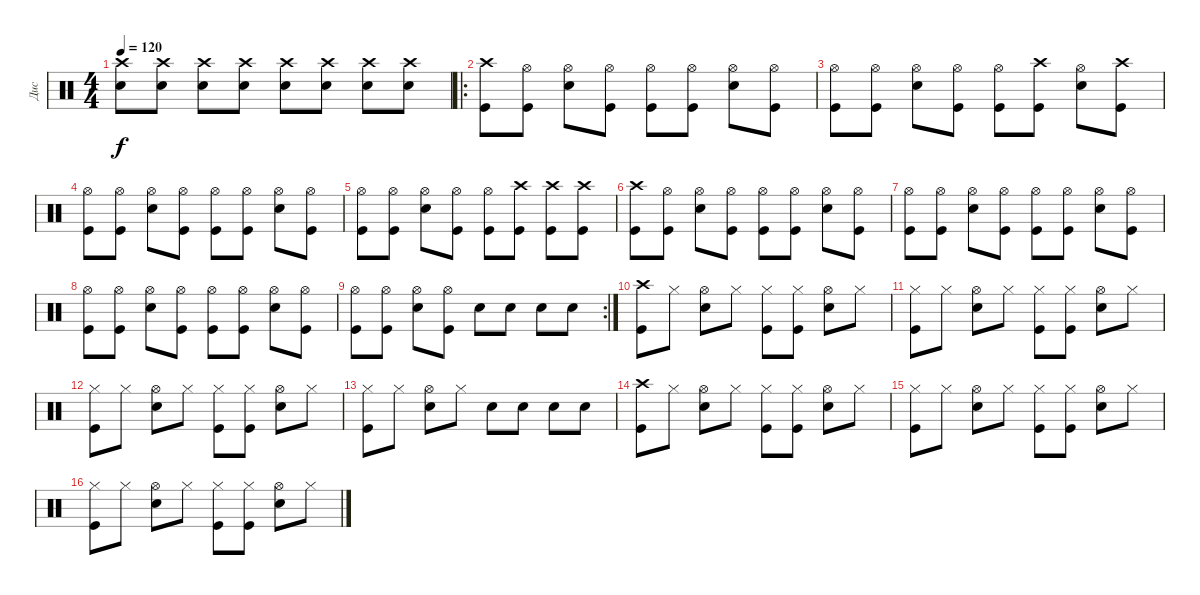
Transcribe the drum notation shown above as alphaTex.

\track ("Дис" "Дис") {instrument percussion}
\staff {score}
\articulation defaults
\ts (4 4)
\tempo 120
\clef neutral
\ks c
("Crash high (hit)" "Electric Snare (hit)").8{dy f} ("Crash high (hit)" "Electric Snare (hit)").8 ("Crash high (hit)" "Electric Snare (hit)").8 ("Crash high (hit)" "Electric Snare (hit)").8 ("Crash high (hit)" "Electric Snare (hit)").8 ("Crash high (hit)" "Electric Snare (hit)").8 ("Crash high (hit)" "Electric Snare (hit)").8 ("Crash high (hit)" "Electric Snare (hit)").8 |
\ro
("Crash high (hit)" "Kick (hit)").8 ("Hi-Hat (open)" "Kick (hit)").8 ("Hi-Hat (open)" "Electric Snare (hit)").8 ("Hi-Hat (open)" "Kick (hit)").8 ("Hi-Hat (open)" "Kick (hit)").8 ("Hi-Hat (open)" "Kick (hit)").8 ("Hi-Hat (open)" "Electric Snare (hit)").8 ("Hi-Hat (open)" "Kick (hit)").8 |
("Hi-Hat (open)" "Kick (hit)").8 ("Hi-Hat (open)" "Kick (hit)").8 ("Hi-Hat (open)" "Electric Snare (hit)").8 ("Hi-Hat (open)" "Kick (hit)").8 ("Hi-Hat (open)" "Kick (hit)").8 ("Crash high (hit)" "Kick (hit)").8 ("Hi-Hat (open)" "Electric Snare (hit)").8 ("Crash high (hit)" "Kick (hit)").8 |
("Hi-Hat (open)" "Kick (hit)").8 ("Hi-Hat (open)" "Kick (hit)").8 ("Hi-Hat (open)" "Electric Snare (hit)").8 ("Hi-Hat (open)" "Kick (hit)").8 ("Hi-Hat (open)" "Kick (hit)").8 ("Hi-Hat (open)" "Kick (hit)").8 ("Hi-Hat (open)" "Electric Snare (hit)").8 ("Hi-Hat (open)" "Kick (hit)").8 |
("Hi-Hat (open)" "Kick (hit)").8 ("Hi-Hat (open)" "Kick (hit)").8 ("Hi-Hat (open)" "Electric Snare (hit)").8 ("Hi-Hat (open)" "Kick (hit)").8 ("Hi-Hat (open)" "Kick (hit)").8 ("Crash high (hit)" "Kick (hit)").8 ("Crash high (hit)" "Kick (hit)").8 ("Crash high (hit)" "Kick (hit)").8 |
("Crash high (hit)" "Kick (hit)").8 ("Hi-Hat (open)" "Kick (hit)").8 ("Hi-Hat (open)" "Electric Snare (hit)").8 ("Hi-Hat (open)" "Kick (hit)").8 ("Hi-Hat (open)" "Kick (hit)").8 ("Hi-Hat (open)" "Kick (hit)").8 ("Hi-Hat (open)" "Electric Snare (hit)").8 ("Hi-Hat (open)" "Kick (hit)").8 |
("Hi-Hat (open)" "Kick (hit)").8 ("Hi-Hat (open)" "Kick (hit)").8 ("Hi-Hat (open)" "Electric Snare (hit)").8 ("Hi-Hat (open)" "Kick (hit)").8 ("Hi-Hat (open)" "Kick (hit)").8 ("Hi-Hat (open)" "Kick (hit)").8 ("Hi-Hat (open)" "Electric Snare (hit)").8 ("Hi-Hat (open)" "Kick (hit)").8 |
("Hi-Hat (open)" "Kick (hit)").8 ("Hi-Hat (open)" "Kick (hit)").8 ("Hi-Hat (open)" "Electric Snare (hit)").8 ("Hi-Hat (open)" "Kick (hit)").8 ("Hi-Hat (open)" "Kick (hit)").8 ("Hi-Hat (open)" "Kick (hit)").8 ("Hi-Hat (open)" "Electric Snare (hit)").8 ("Hi-Hat (open)" "Kick (hit)").8 |
\rc 2
("Hi-Hat (open)" "Kick (hit)").8 ("Hi-Hat (open)" "Kick (hit)").8 ("Hi-Hat (open)" "Electric Snare (hit)").8 ("Hi-Hat (open)" "Kick (hit)").8 "Electric Snare (hit)".8 "Electric Snare (hit)".8 "Electric Snare (hit)".8 "Electric Snare (hit)".8 |
("Crash high (hit)" "Kick (hit)").8 "Hi-Hat (closed)".8 ("Hi-Hat (open)" "Electric Snare (hit)").8 "Hi-Hat (closed)".8 ("Hi-Hat (closed)" "Kick (hit)").8 ("Hi-Hat (closed)" "Kick (hit)").8 ("Hi-Hat (open)" "Electric Snare (hit)").8 "Hi-Hat (closed)".8 |
("Hi-Hat (closed)" "Kick (hit)").8 "Hi-Hat (closed)".8 ("Hi-Hat (open)" "Electric Snare (hit)").8 "Hi-Hat (closed)".8 ("Hi-Hat (closed)" "Kick (hit)").8 ("Hi-Hat (closed)" "Kick (hit)").8 ("Hi-Hat (open)" "Electric Snare (hit)").8 "Hi-Hat (closed)".8 |
("Hi-Hat (closed)" "Kick (hit)").8 "Hi-Hat (closed)".8 ("Hi-Hat (open)" "Electric Snare (hit)").8 "Hi-Hat (closed)".8 ("Hi-Hat (closed)" "Kick (hit)").8 ("Hi-Hat (closed)" "Kick (hit)").8 ("Hi-Hat (open)" "Electric Snare (hit)").8 "Hi-Hat (closed)".8 |
("Hi-Hat (closed)" "Kick (hit)").8 "Hi-Hat (closed)".8 ("Hi-Hat (open)" "Electric Snare (hit)").8 "Hi-Hat (closed)".8 "Electric Snare (hit)".8 "Electric Snare (hit)".8 "Electric Snare (hit)".8 "Electric Snare (hit)".8 |
("Crash high (hit)" "Kick (hit)").8 "Hi-Hat (closed)".8 ("Hi-Hat (open)" "Electric Snare (hit)").8 "Hi-Hat (closed)".8 ("Hi-Hat (closed)" "Kick (hit)").8 ("Hi-Hat (closed)" "Kick (hit)").8 ("Hi-Hat (open)" "Electric Snare (hit)").8 "Hi-Hat (closed)".8 |
("Hi-Hat (closed)" "Kick (hit)").8 "Hi-Hat (closed)".8 ("Hi-Hat (open)" "Electric Snare (hit)").8 "Hi-Hat (closed)".8 ("Hi-Hat (closed)" "Kick (hit)").8 ("Hi-Hat (closed)" "Kick (hit)").8 ("Hi-Hat (open)" "Electric Snare (hit)").8 "Hi-Hat (closed)".8 |
("Hi-Hat (closed)" "Kick (hit)").8 "Hi-Hat (closed)".8 ("Hi-Hat (open)" "Electric Snare (hit)").8 "Hi-Hat (closed)".8 ("Hi-Hat (closed)" "Kick (hit)").8 ("Hi-Hat (closed)" "Kick (hit)").8 ("Hi-Hat (open)" "Electric Snare (hit)").8 "Hi-Hat (closed)".8
